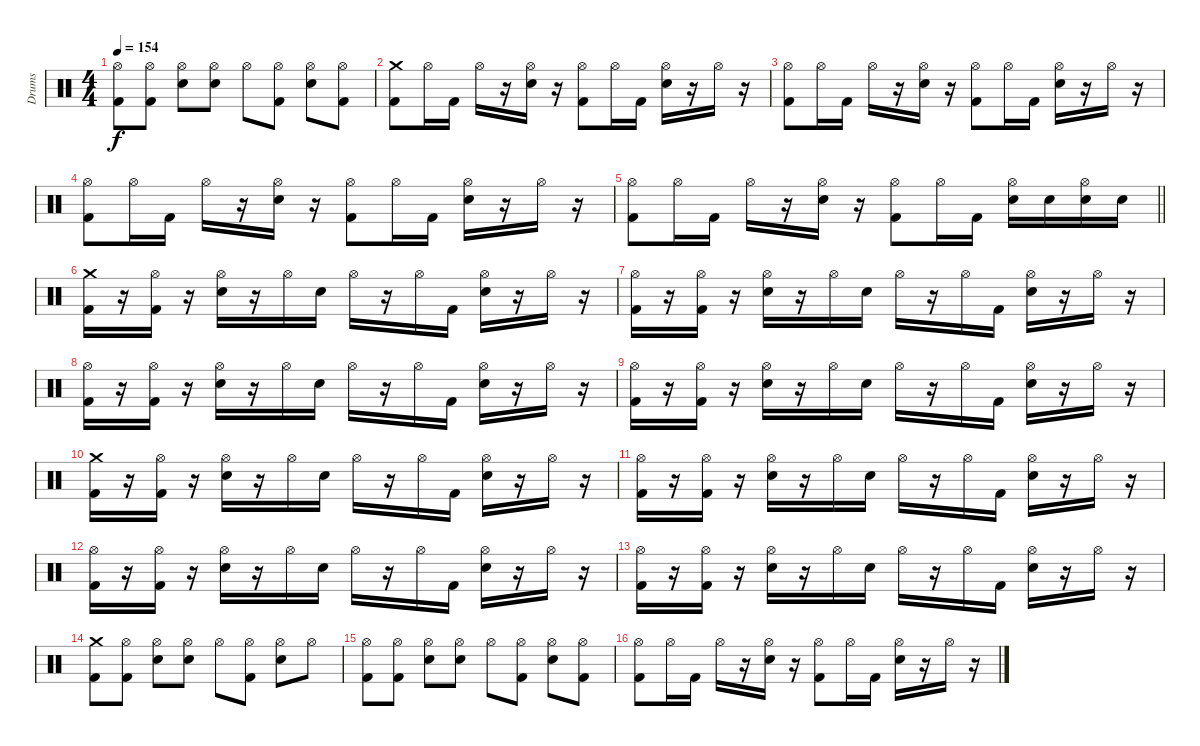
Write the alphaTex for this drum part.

\track ("Drums" "Drums") {instrument percussion}
\staff {score}
\articulation defaults
\ts (4 4)
\tempo 154
\clef neutral
\ks c
("Kick (hit) 2" "Hi-Hat (open)").8{dy f} ("Kick (hit) 2" "Hi-Hat (open)").8 ("Electric Snare (hit)" "Hi-Hat (open)").8 ("Electric Snare (hit)" "Hi-Hat (open)").8 "Hi-Hat (open)".8 ("Kick (hit) 2" "Hi-Hat (open)").8 ("Electric Snare (hit)" "Hi-Hat (open)").8 ("Kick (hit) 2" "Hi-Hat (open)").8 |
("Kick (hit) 2" "Crash medium (hit)").8 "Hi-Hat (open)".16 "Kick (hit) 2".16 "Hi-Hat (open)".16 r.16 ("Electric Snare (hit)" "Hi-Hat (open)").16 r.16 ("Kick (hit) 2" "Hi-Hat (open)").8 "Hi-Hat (open)".16 "Kick (hit) 2".16 ("Electric Snare (hit)" "Hi-Hat (open)").16 r.16 "Hi-Hat (open)".16 r.16 |
("Kick (hit) 2" "Hi-Hat (open)").8 "Hi-Hat (open)".16 "Kick (hit) 2".16 "Hi-Hat (open)".16 r.16 ("Electric Snare (hit)" "Hi-Hat (open)").16 r.16 ("Kick (hit) 2" "Hi-Hat (open)").8 "Hi-Hat (open)".16 "Kick (hit) 2".16 ("Electric Snare (hit)" "Hi-Hat (open)").16 r.16 "Hi-Hat (open)".16 r.16 |
("Kick (hit) 2" "Hi-Hat (open)").8 "Hi-Hat (open)".16 "Kick (hit) 2".16 "Hi-Hat (open)".16 r.16 ("Electric Snare (hit)" "Hi-Hat (open)").16 r.16 ("Kick (hit) 2" "Hi-Hat (open)").8 "Hi-Hat (open)".16 "Kick (hit) 2".16 ("Electric Snare (hit)" "Hi-Hat (open)").16 r.16 "Hi-Hat (open)".16 r.16 |
\barLineRight lightlight
("Kick (hit) 2" "Hi-Hat (open)").8 "Hi-Hat (open)".16 "Kick (hit) 2".16 "Hi-Hat (open)".16 r.16 ("Electric Snare (hit)" "Hi-Hat (open)").16 r.16 ("Kick (hit) 2" "Hi-Hat (open)").8 "Hi-Hat (open)".16 "Kick (hit) 2".16 ("Electric Snare (hit)" "Hi-Hat (open)").16 "Electric Snare (hit)".16 ("Electric Snare (hit)" "Hi-Hat (open)").16 "Electric Snare (hit)".16 |
("Kick (hit) 2" "Crash medium (hit)").16 r.16 ("Kick (hit) 2" "Hi-Hat (open)").16 r.16 ("Electric Snare (hit)" "Hi-Hat (open)").16 r.16 "Hi-Hat (open)".16 "Electric Snare (hit)".16 "Hi-Hat (open)".16 r.16 "Hi-Hat (open)".16 "Kick (hit) 2".16 ("Electric Snare (hit)" "Hi-Hat (open)").16 r.16 "Hi-Hat (open)".16 r.16 |
("Kick (hit) 2" "Hi-Hat (open)").16 r.16 ("Kick (hit) 2" "Hi-Hat (open)").16 r.16 ("Electric Snare (hit)" "Hi-Hat (open)").16 r.16 "Hi-Hat (open)".16 "Electric Snare (hit)".16 "Hi-Hat (open)".16 r.16 "Hi-Hat (open)".16 "Kick (hit) 2".16 ("Electric Snare (hit)" "Hi-Hat (open)").16 r.16 "Hi-Hat (open)".16 r.16 |
("Kick (hit) 2" "Hi-Hat (open)").16 r.16 ("Kick (hit) 2" "Hi-Hat (open)").16 r.16 ("Electric Snare (hit)" "Hi-Hat (open)").16 r.16 "Hi-Hat (open)".16 "Electric Snare (hit)".16 "Hi-Hat (open)".16 r.16 "Hi-Hat (open)".16 "Kick (hit) 2".16 ("Electric Snare (hit)" "Hi-Hat (open)").16 r.16 "Hi-Hat (open)".16 r.16 |
("Kick (hit) 2" "Hi-Hat (open)").16 r.16 ("Kick (hit) 2" "Hi-Hat (open)").16 r.16 ("Electric Snare (hit)" "Hi-Hat (open)").16 r.16 "Hi-Hat (open)".16 "Electric Snare (hit)".16 "Hi-Hat (open)".16 r.16 "Hi-Hat (open)".16 "Kick (hit) 2".16 ("Electric Snare (hit)" "Hi-Hat (open)").16 r.16 "Hi-Hat (open)".16 r.16 |
("Kick (hit) 2" "Crash medium (hit)").16 r.16 ("Kick (hit) 2" "Hi-Hat (open)").16 r.16 ("Electric Snare (hit)" "Hi-Hat (open)").16 r.16 "Hi-Hat (open)".16 "Electric Snare (hit)".16 "Hi-Hat (open)".16 r.16 "Hi-Hat (open)".16 "Kick (hit) 2".16 ("Electric Snare (hit)" "Hi-Hat (open)").16 r.16 "Hi-Hat (open)".16 r.16 |
("Kick (hit) 2" "Hi-Hat (open)").16 r.16 ("Kick (hit) 2" "Hi-Hat (open)").16 r.16 ("Electric Snare (hit)" "Hi-Hat (open)").16 r.16 "Hi-Hat (open)".16 "Electric Snare (hit)".16 "Hi-Hat (open)".16 r.16 "Hi-Hat (open)".16 "Kick (hit) 2".16 ("Electric Snare (hit)" "Hi-Hat (open)").16 r.16 "Hi-Hat (open)".16 r.16 |
("Kick (hit) 2" "Hi-Hat (open)").16 r.16 ("Kick (hit) 2" "Hi-Hat (open)").16 r.16 ("Electric Snare (hit)" "Hi-Hat (open)").16 r.16 "Hi-Hat (open)".16 "Electric Snare (hit)".16 "Hi-Hat (open)".16 r.16 "Hi-Hat (open)".16 "Kick (hit) 2".16 ("Electric Snare (hit)" "Hi-Hat (open)").16 r.16 "Hi-Hat (open)".16 r.16 |
("Kick (hit) 2" "Hi-Hat (open)").16 r.16 ("Kick (hit) 2" "Hi-Hat (open)").16 r.16 ("Electric Snare (hit)" "Hi-Hat (open)").16 r.16 "Hi-Hat (open)".16 "Electric Snare (hit)".16 "Hi-Hat (open)".16 r.16 "Hi-Hat (open)".16 "Kick (hit) 2".16 ("Electric Snare (hit)" "Hi-Hat (open)").16 r.16 "Hi-Hat (open)".16 r.16 |
("Kick (hit) 2" "Crash medium (hit)").8 ("Kick (hit) 2" "Hi-Hat (open)").8 ("Electric Snare (hit)" "Hi-Hat (open)").8 ("Electric Snare (hit)" "Hi-Hat (open)").8 "Hi-Hat (open)".8 ("Kick (hit) 2" "Hi-Hat (open)").8 ("Electric Snare (hit)" "Hi-Hat (open)").8 "Hi-Hat (open)".8 |
("Kick (hit) 2" "Hi-Hat (open)").8 ("Kick (hit) 2" "Hi-Hat (open)").8 ("Electric Snare (hit)" "Hi-Hat (open)").8 ("Electric Snare (hit)" "Hi-Hat (open)").8 "Hi-Hat (open)".8 ("Kick (hit) 2" "Hi-Hat (open)").8 ("Electric Snare (hit)" "Hi-Hat (open)").8 ("Kick (hit) 2" "Hi-Hat (open)").8 |
("Kick (hit) 2" "Hi-Hat (open)").8 "Hi-Hat (open)".16 "Kick (hit) 2".16 "Hi-Hat (open)".16 r.16 ("Electric Snare (hit)" "Hi-Hat (open)").16 r.16 ("Kick (hit) 2" "Hi-Hat (open)").8 "Hi-Hat (open)".16 "Kick (hit) 2".16 ("Electric Snare (hit)" "Hi-Hat (open)").16 r.16 "Hi-Hat (open)".16 r.16
